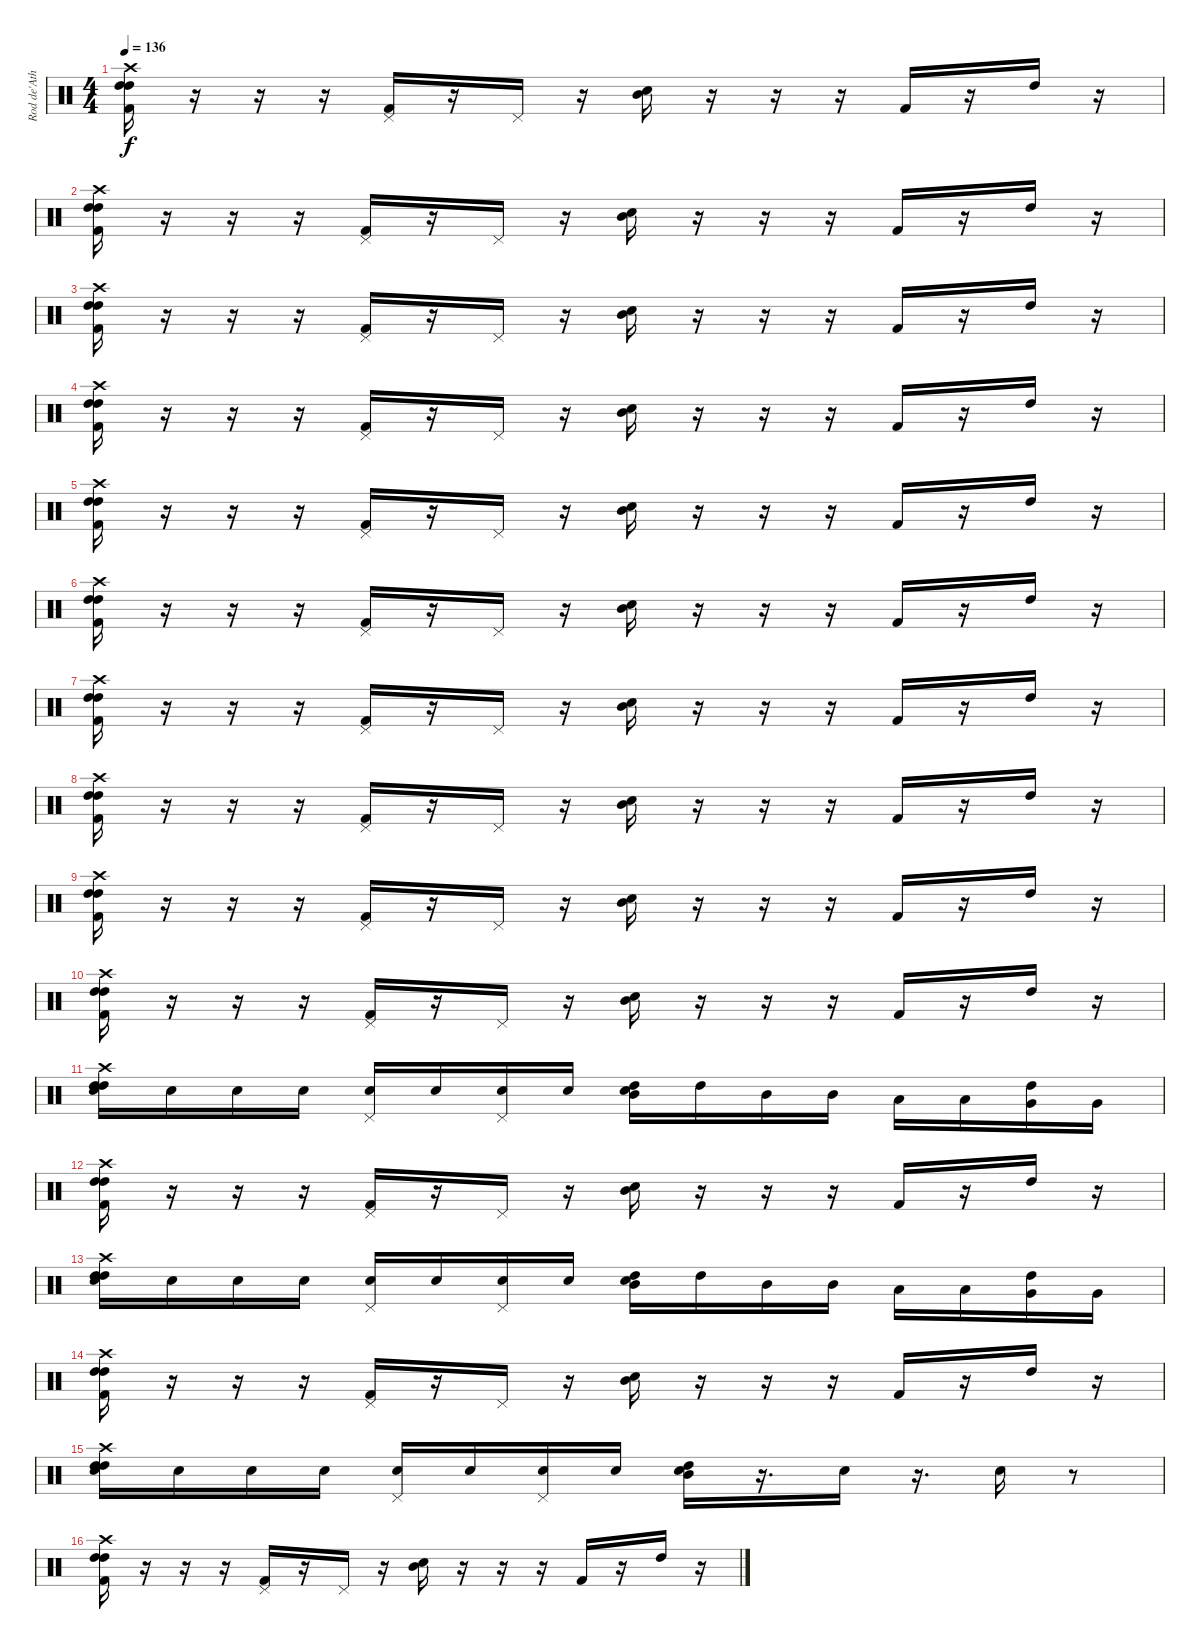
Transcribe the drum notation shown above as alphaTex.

\track ("Rod de'Ath" "Rod de'Ath") {instrument percussion}
\staff {score}
\articulation defaults
\ts (4 4)
\tempo 136
\clef neutral
\ks c
("Crash high (hit)" "High Tom (hit)" "High Tom (hit)" "Kick (hit) 2").16{dy f} r.16 r.16 r.16 ("Pedal Hi-Hat (hit)" "Kick (hit) 2").16 r.16 "Pedal Hi-Hat (hit)".16 r.16 ("Electric Snare (hit)" "Mid Tom (hit)").16 r.16 r.16 r.16 "Kick (hit) 2".16 r.16 "High Tom (hit)".16 r.16 |
("Crash high (hit)" "High Tom (hit)" "High Tom (hit)" "Kick (hit) 2").16 r.16 r.16 r.16 ("Pedal Hi-Hat (hit)" "Kick (hit) 2").16 r.16 "Pedal Hi-Hat (hit)".16 r.16 ("Electric Snare (hit)" "Mid Tom (hit)").16 r.16 r.16 r.16 "Kick (hit) 2".16 r.16 "High Tom (hit)".16 r.16 |
("Crash high (hit)" "High Tom (hit)" "High Tom (hit)" "Kick (hit) 2").16 r.16 r.16 r.16 ("Pedal Hi-Hat (hit)" "Kick (hit) 2").16 r.16 "Pedal Hi-Hat (hit)".16 r.16 ("Electric Snare (hit)" "Mid Tom (hit)").16 r.16 r.16 r.16 "Kick (hit) 2".16 r.16 "High Tom (hit)".16 r.16 |
("Crash high (hit)" "High Tom (hit)" "High Tom (hit)" "Kick (hit) 2").16 r.16 r.16 r.16 ("Pedal Hi-Hat (hit)" "Kick (hit) 2").16 r.16 "Pedal Hi-Hat (hit)".16 r.16 ("Electric Snare (hit)" "Mid Tom (hit)").16 r.16 r.16 r.16 "Kick (hit) 2".16 r.16 "High Tom (hit)".16 r.16 |
("Crash high (hit)" "High Tom (hit)" "High Tom (hit)" "Kick (hit) 2").16 r.16 r.16 r.16 ("Pedal Hi-Hat (hit)" "Kick (hit) 2").16 r.16 "Pedal Hi-Hat (hit)".16 r.16 ("Electric Snare (hit)" "Mid Tom (hit)").16 r.16 r.16 r.16 "Kick (hit) 2".16 r.16 "High Tom (hit)".16 r.16 |
("Crash high (hit)" "High Tom (hit)" "High Tom (hit)" "Kick (hit) 2").16 r.16 r.16 r.16 ("Pedal Hi-Hat (hit)" "Kick (hit) 2").16 r.16 "Pedal Hi-Hat (hit)".16 r.16 ("Electric Snare (hit)" "Mid Tom (hit)").16 r.16 r.16 r.16 "Kick (hit) 2".16 r.16 "High Tom (hit)".16 r.16 |
("Crash high (hit)" "High Tom (hit)" "High Tom (hit)" "Kick (hit) 2").16 r.16 r.16 r.16 ("Pedal Hi-Hat (hit)" "Kick (hit) 2").16 r.16 "Pedal Hi-Hat (hit)".16 r.16 ("Electric Snare (hit)" "Mid Tom (hit)").16 r.16 r.16 r.16 "Kick (hit) 2".16 r.16 "High Tom (hit)".16 r.16 |
("Crash high (hit)" "High Tom (hit)" "High Tom (hit)" "Kick (hit) 2").16 r.16 r.16 r.16 ("Pedal Hi-Hat (hit)" "Kick (hit) 2").16 r.16 "Pedal Hi-Hat (hit)".16 r.16 ("Electric Snare (hit)" "Mid Tom (hit)").16 r.16 r.16 r.16 "Kick (hit) 2".16 r.16 "High Tom (hit)".16 r.16 |
("Crash high (hit)" "High Tom (hit)" "High Tom (hit)" "Kick (hit) 2").16 r.16 r.16 r.16 ("Pedal Hi-Hat (hit)" "Kick (hit) 2").16 r.16 "Pedal Hi-Hat (hit)".16 r.16 ("Electric Snare (hit)" "Mid Tom (hit)").16 r.16 r.16 r.16 "Kick (hit) 2".16 r.16 "High Tom (hit)".16 r.16 |
("Crash high (hit)" "High Tom (hit)" "High Tom (hit)" "Kick (hit) 2").16 r.16 r.16 r.16 ("Pedal Hi-Hat (hit)" "Kick (hit) 2").16 r.16 "Pedal Hi-Hat (hit)".16 r.16 ("Electric Snare (hit)" "Mid Tom (hit)").16 r.16 r.16 r.16 "Kick (hit) 2".16 r.16 "High Tom (hit)".16 r.16 |
("Crash high (hit)" "High Tom (hit)" "High Tom (hit)" "Electric Snare (hit)").16 "Electric Snare (hit)".16 "Snare (hit) 2".16 "Electric Snare (hit)".16 ("Pedal Hi-Hat (hit)" "Electric Snare (hit)").16 "Snare (hit) 2".16 ("Pedal Hi-Hat (hit)" "Electric Snare (hit)").16 "Electric Snare (hit)".16 ("Electric Snare (hit)" "Mid Tom (hit)" "High Tom (hit)").16 "High Tom (hit)".16 "Mid Tom (hit)".16 "Mid Tom (hit)".16 "Low Tom (hit)".16 "Low Tom (hit)".16 ("High Tom (hit)" "Very Low Tom (hit)").16 "Very Low Tom (hit)".16 |
("Crash high (hit)" "High Tom (hit)" "High Tom (hit)" "Kick (hit) 2").16 r.16 r.16 r.16 ("Pedal Hi-Hat (hit)" "Kick (hit) 2").16 r.16 "Pedal Hi-Hat (hit)".16 r.16 ("Electric Snare (hit)" "Mid Tom (hit)").16 r.16 r.16 r.16 "Kick (hit) 2".16 r.16 "High Tom (hit)".16 r.16 |
("Crash high (hit)" "High Tom (hit)" "High Tom (hit)" "Electric Snare (hit)").16 "Electric Snare (hit)".16 "Snare (hit) 2".16 "Electric Snare (hit)".16 ("Pedal Hi-Hat (hit)" "Electric Snare (hit)").16 "Snare (hit) 2".16 ("Pedal Hi-Hat (hit)" "Electric Snare (hit)").16 "Electric Snare (hit)".16 ("Electric Snare (hit)" "Mid Tom (hit)" "High Tom (hit)").16 "High Tom (hit)".16 "Mid Tom (hit)".16 "Mid Tom (hit)".16 "Low Tom (hit)".16 "Low Tom (hit)".16 ("High Tom (hit)" "Very Low Tom (hit)").16 "Very Low Tom (hit)".16 |
("Crash high (hit)" "High Tom (hit)" "High Tom (hit)" "Kick (hit) 2").16 r.16 r.16 r.16 ("Pedal Hi-Hat (hit)" "Kick (hit) 2").16 r.16 "Pedal Hi-Hat (hit)".16 r.16 ("Electric Snare (hit)" "Mid Tom (hit)").16 r.16 r.16 r.16 "Kick (hit) 2".16 r.16 "High Tom (hit)".16 r.16 |
("Crash high (hit)" "High Tom (hit)" "High Tom (hit)" "Electric Snare (hit)").16 "Electric Snare (hit)".16 "Snare (hit) 2".16 "Electric Snare (hit)".16 ("Pedal Hi-Hat (hit)" "Electric Snare (hit)").16 "Snare (hit) 2".16 ("Pedal Hi-Hat (hit)" "Electric Snare (hit)").16 "Electric Snare (hit)".16 ("Electric Snare (hit)" "Mid Tom (hit)" "High Tom (hit)").16 r.16{d} "Electric Snare (hit)".16 r.16{d} "Electric Snare (hit)".16 r.8 |
("Crash high (hit)" "High Tom (hit)" "High Tom (hit)" "Kick (hit) 2").16 r.16 r.16 r.16 ("Pedal Hi-Hat (hit)" "Kick (hit) 2").16 r.16 "Pedal Hi-Hat (hit)".16 r.16 ("Electric Snare (hit)" "Mid Tom (hit)").16 r.16 r.16 r.16 "Kick (hit) 2".16 r.16 "High Tom (hit)".16 r.16
